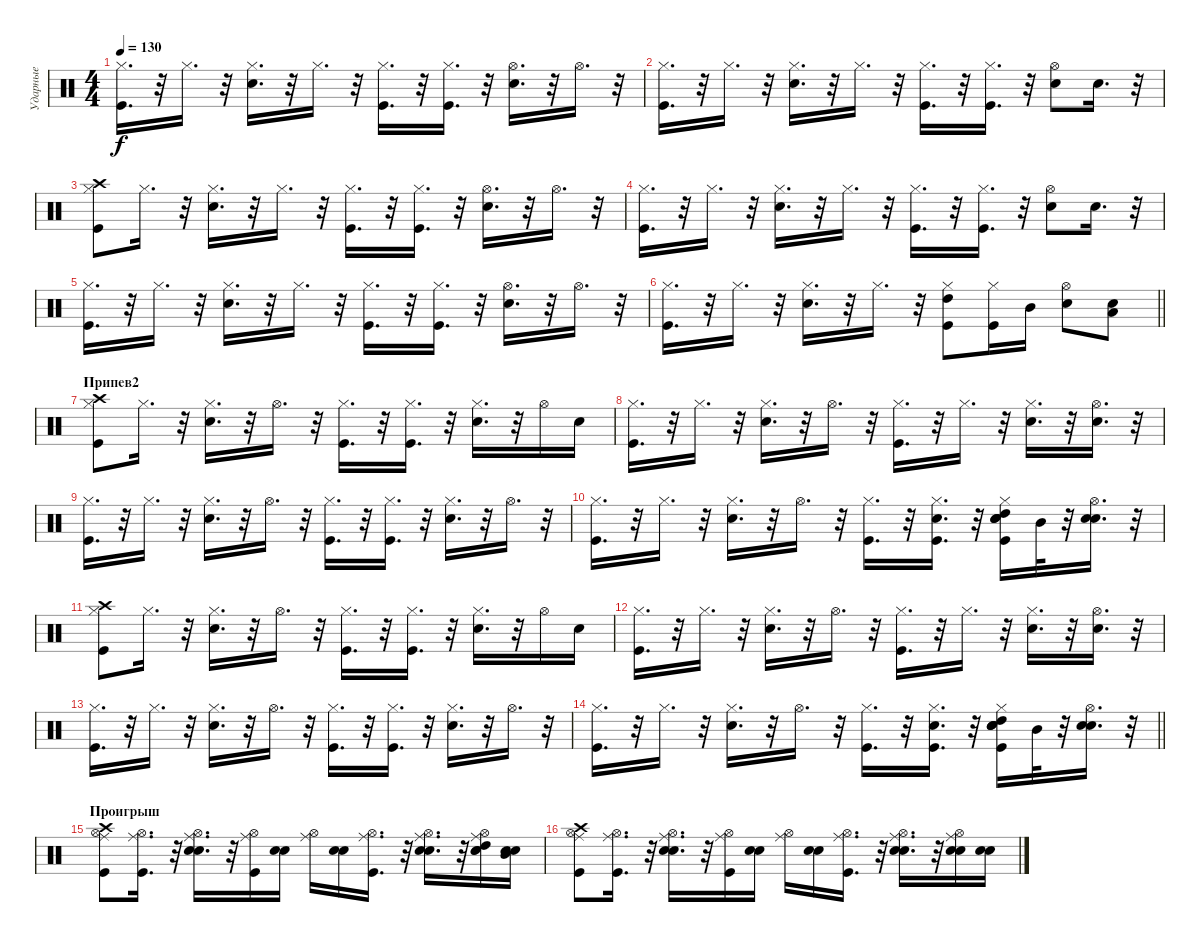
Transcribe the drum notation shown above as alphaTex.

\track ("Ударные" "Ударные") {instrument percussion}
\staff {score}
\articulation defaults
\ts (4 4)
\tempo 130
\clef neutral
\ks c
("Hi-Hat (closed)" "Kick (hit)").16{d dy f} r.32 "Hi-Hat (closed)".16{d} r.32 ("Snare (hit) 2" "Hi-Hat (closed)").16{d} r.32 "Hi-Hat (closed)".16{d} r.32 ("Kick (hit)" "Hi-Hat (closed)").16{d} r.32 ("Kick (hit)" "Hi-Hat (closed)").16{d} r.32 ("Hi-Hat (open)" "Snare (hit) 2").16{d} r.32 "Hi-Hat (open)".16{d} r.32 |
("Hi-Hat (closed)" "Kick (hit)").16{d} r.32 "Hi-Hat (closed)".16{d} r.32 ("Hi-Hat (closed)" "Snare (hit) 2").16{d} r.32 "Hi-Hat (closed)".16{d} r.32 ("Kick (hit)" "Hi-Hat (closed)").16{d} r.32 ("Kick (hit)" "Hi-Hat (closed)").16{d} r.32 ("Hi-Hat (open)" "Snare (hit) 2").8 "Snare (hit) 2".16{d} r.32 |
("Crash high (hit)" "Hi-Hat (closed)" "Kick (hit)").8 "Hi-Hat (closed)".16{d} r.32 ("Snare (hit) 2" "Hi-Hat (closed)").16{d} r.32 "Hi-Hat (closed)".16{d} r.32 ("Kick (hit)" "Hi-Hat (closed)").16{d} r.32 ("Kick (hit)" "Hi-Hat (closed)").16{d} r.32 ("Hi-Hat (open)" "Snare (hit) 2").16{d} r.32 "Hi-Hat (open)".16{d} r.32 |
("Hi-Hat (closed)" "Kick (hit)").16{d} r.32 "Hi-Hat (closed)".16{d} r.32 ("Hi-Hat (closed)" "Snare (hit) 2").16{d} r.32 "Hi-Hat (closed)".16{d} r.32 ("Kick (hit)" "Hi-Hat (closed)").16{d} r.32 ("Kick (hit)" "Hi-Hat (closed)").16{d} r.32 ("Hi-Hat (open)" "Snare (hit) 2").8 "Snare (hit) 2".16{d} r.32 |
("Hi-Hat (closed)" "Kick (hit)").16{d} r.32 "Hi-Hat (closed)".16{d} r.32 ("Snare (hit) 2" "Hi-Hat (closed)").16{d} r.32 "Hi-Hat (closed)".16{d} r.32 ("Kick (hit)" "Hi-Hat (closed)").16{d} r.32 ("Kick (hit)" "Hi-Hat (closed)").16{d} r.32 ("Hi-Hat (open)" "Snare (hit) 2").16{d} r.32 "Hi-Hat (open)".16{d} r.32 |
\barLineRight lightlight
("Hi-Hat (closed)" "Kick (hit)").16{d} r.32 "Hi-Hat (closed)".16{d} r.32 ("Hi-Hat (closed)" "Snare (hit) 2").16{d} r.32 "Hi-Hat (closed)".16{d} r.32 ("High Tom (hit)" "Kick (hit)" "Hi-Hat (closed)").8 ("Kick (hit)" "Hi-Hat (closed)").16 "Mid Tom (hit)".16 ("Hi-Hat (open)" "Snare (hit) 2").8 ("Low Tom (hit)" "Snare (hit) 2").8 |
\section ("" "Припев2")
("Hi-Hat (closed)" "Crash high (hit)" "Kick (hit)").8 "Hi-Hat (closed)".16{d} r.32 ("Hi-Hat (closed)" "Snare (hit) 2").16{d} r.32 "Hi-Hat (open)".16{d} r.32 ("Hi-Hat (closed)" "Kick (hit)").16{d} r.32 ("Hi-Hat (closed)" "Kick (hit)").16{d} r.32 ("Hi-Hat (closed)" "Snare (hit) 2").16{d} r.32 "Hi-Hat (open)".16 "Snare (hit) 2".16 |
("Kick (hit)" "Hi-Hat (closed)").16{d} r.32 "Hi-Hat (closed)".16{d} r.32 ("Hi-Hat (closed)" "Snare (hit) 2").16{d} r.32 "Hi-Hat (open)".16{d} r.32 ("Hi-Hat (closed)" "Kick (hit)").16{d} r.32 "Hi-Hat (closed)".16{d} r.32 ("Hi-Hat (closed)" "Snare (hit) 2").16{d} r.32 ("Hi-Hat (open)" "Snare (hit) 2").16{d} r.32 |
("Hi-Hat (closed)" "Kick (hit)").16{d} r.32 "Hi-Hat (closed)".16{d} r.32 ("Hi-Hat (closed)" "Snare (hit) 2").16{d} r.32 "Hi-Hat (open)".16{d} r.32 ("Hi-Hat (closed)" "Kick (hit)").16{d} r.32 ("Hi-Hat (closed)" "Kick (hit)").16{d} r.32 ("Hi-Hat (closed)" "Snare (hit) 2").16{d} r.32 "Hi-Hat (open)".16{d} r.32 |
("Hi-Hat (closed)" "Kick (hit)").16{d} r.32 "Hi-Hat (closed)".16{d} r.32 ("Hi-Hat (closed)" "Snare (hit) 2").16{d} r.32 "Hi-Hat (open)".16{d} r.32 ("Hi-Hat (closed)" "Kick (hit)").16{d} r.32 ("Hi-Hat (closed)" "Snare (hit) 2" "Kick (hit)").16{d} r.32 ("High Tom (hit)" "Hi-Hat (closed)" "Hand Clap (hit)" "Electric Snare (hit)" "Snare (hit) 2" "Kick (hit)").16 "Mid Tom (hit)".32 r.32 ("Hi-Hat (open)" "Hand Clap (hit)" "Snare (hit) 2").16{d} r.32 |
("Hi-Hat (closed)" "Crash high (hit)" "Kick (hit)").8 "Hi-Hat (closed)".16{d} r.32 ("Hi-Hat (closed)" "Snare (hit) 2").16{d} r.32 "Hi-Hat (open)".16{d} r.32 ("Hi-Hat (closed)" "Kick (hit)").16{d} r.32 ("Hi-Hat (closed)" "Kick (hit)").16{d} r.32 ("Hi-Hat (closed)" "Snare (hit) 2").16{d} r.32 "Hi-Hat (open)".16 "Snare (hit) 2".16 |
("Kick (hit)" "Hi-Hat (closed)").16{d} r.32 "Hi-Hat (closed)".16{d} r.32 ("Hi-Hat (closed)" "Snare (hit) 2").16{d} r.32 "Hi-Hat (open)".16{d} r.32 ("Hi-Hat (closed)" "Kick (hit)").16{d} r.32 "Hi-Hat (closed)".16{d} r.32 ("Hi-Hat (closed)" "Snare (hit) 2").16{d} r.32 ("Hi-Hat (open)" "Snare (hit) 2").16{d} r.32 |
("Hi-Hat (closed)" "Kick (hit)").16{d} r.32 "Hi-Hat (closed)".16{d} r.32 ("Hi-Hat (closed)" "Snare (hit) 2").16{d} r.32 "Hi-Hat (open)".16{d} r.32 ("Hi-Hat (closed)" "Kick (hit)").16{d} r.32 ("Hi-Hat (closed)" "Kick (hit)").16{d} r.32 ("Hi-Hat (closed)" "Snare (hit) 2").16{d} r.32 "Hi-Hat (open)".16{d} r.32 |
\barLineRight lightlight
("Hi-Hat (closed)" "Kick (hit)").16{d} r.32 "Hi-Hat (closed)".16{d} r.32 ("Hi-Hat (closed)" "Snare (hit) 2").16{d} r.32 "Hi-Hat (open)".16{d} r.32 ("Hi-Hat (closed)" "Kick (hit)").16{d} r.32 ("Hi-Hat (closed)" "Snare (hit) 2" "Kick (hit)").16{d} r.32 ("High Tom (hit)" "Hi-Hat (closed)" "Hand Clap (hit)" "Electric Snare (hit)" "Snare (hit) 2" "Kick (hit)").16 "Mid Tom (hit)".32 r.32 ("Hi-Hat (open)" "Hand Clap (hit)" "Snare (hit) 2").16{d} r.32 |
\section ("" "Проигрыш")
("Ride (middle)" "Kick (hit)" "Hi-Hat (open)" "Crash high (hit)").8 ("Kick (hit)" "Ride (middle)" "Hi-Hat (open)").16{d} r.32 ("Electric Snare (hit)" "Snare (hit) 2" "Ride (middle)" "Hi-Hat (open)").16{d} r.32 ("Kick (hit)" "Ride (middle)" "Hi-Hat (open)").16 ("Electric Snare (hit)" "Snare (hit) 2").16 ("Ride (middle)" "Hi-Hat (open)").16 ("Electric Snare (hit)" "Snare (hit) 2").16 ("Kick (hit)" "Ride (middle)" "Hi-Hat (open)").16{d} r.32 ("Electric Snare (hit)" "Snare (hit) 2" "Ride (middle)" "Hi-Hat (open)").16{d} r.32 ("Electric Snare (hit)" "High Tom (hit)" "Snare (hit) 2" "Ride (middle)" "Hi-Hat (open)").16 ("Electric Snare (hit)" "Mid Tom (hit)" "Snare (hit) 2").16 |
("Ride (middle)" "Kick (hit)" "Hi-Hat (open)" "Crash high (hit)").8 ("Kick (hit)" "Ride (middle)" "Hi-Hat (open)").16{d} r.32 ("Electric Snare (hit)" "Snare (hit) 2" "Ride (middle)" "Hi-Hat (open)").16{d} r.32 ("Kick (hit)" "Ride (middle)" "Hi-Hat (open)").16 ("Electric Snare (hit)" "Snare (hit) 2").16 ("Ride (middle)" "Hi-Hat (open)").16 ("Electric Snare (hit)" "Snare (hit) 2").16 ("Kick (hit)" "Ride (middle)" "Hi-Hat (open)").16{d} r.32 ("Electric Snare (hit)" "Snare (hit) 2" "Ride (middle)" "Hi-Hat (open)").16{d} r.32 ("Electric Snare (hit)" "Snare (hit) 2" "Ride (middle)" "Hi-Hat (open)").16 ("Electric Snare (hit)" "Snare (hit) 2").16
